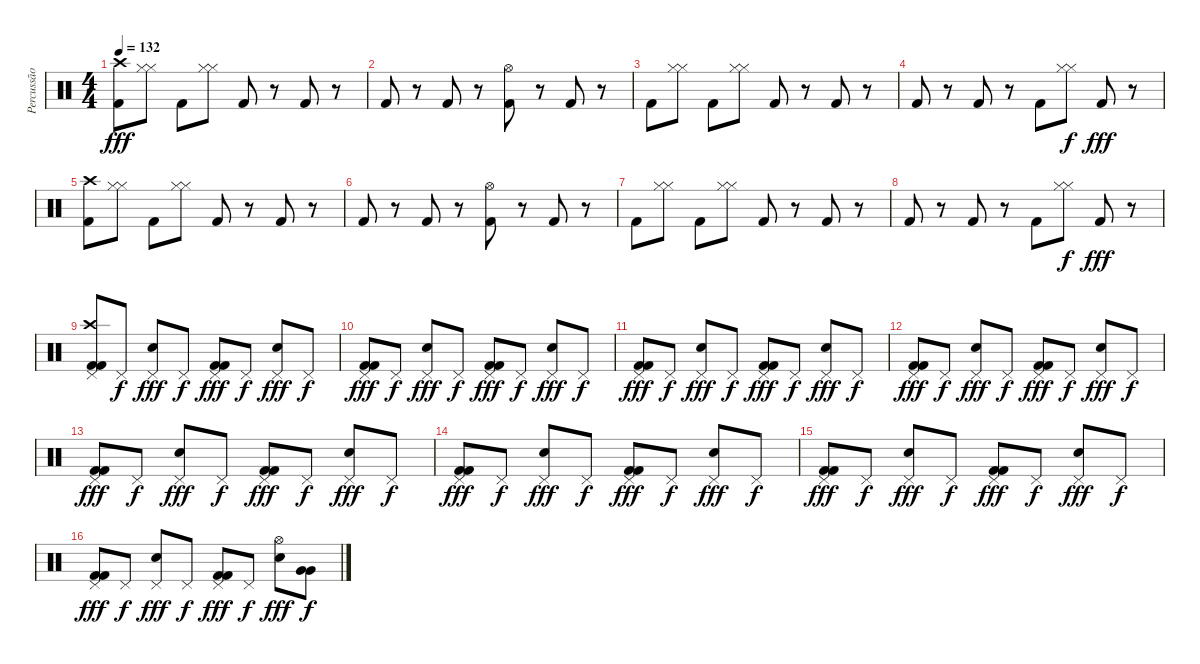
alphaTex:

\track ("Percussão" "Percussão") {instrument percussion}
\staff {score}
\articulation defaults
\ts (4 4)
\tempo 132
\clef neutral
\ks c
("Kick (hit) 2" "Crash high (hit)").8{dy fff} ("Hi-Hat (closed)" "Hi-Hat (closed)").8 "Kick (hit) 2".8 ("Hi-Hat (closed)" "Hi-Hat (closed)").8 "Kick (hit) 2".8 r.8 "Kick (hit) 2".8 r.8 |
"Kick (hit) 2".8 r.8 "Kick (hit) 2".8 r.8 ("Kick (hit) 2" "Hi-Hat (open)").8 r.8 "Kick (hit) 2".8 r.8 |
"Kick (hit) 2".8 ("Hi-Hat (closed)" "Hi-Hat (closed)").8 "Kick (hit) 2".8 ("Hi-Hat (closed)" "Hi-Hat (closed)").8 "Kick (hit) 2".8 r.8 "Kick (hit) 2".8 r.8 |
"Kick (hit) 2".8 r.8 "Kick (hit) 2".8 r.8 "Kick (hit) 2".8 ("Hi-Hat (closed)" "Hi-Hat (closed)").8{dy f} "Kick (hit) 2".8{dy fff} r.8 |
("Kick (hit) 2" "Crash high (hit)").8 ("Hi-Hat (closed)" "Hi-Hat (closed)").8 "Kick (hit) 2".8 ("Hi-Hat (closed)" "Hi-Hat (closed)").8 "Kick (hit) 2".8 r.8 "Kick (hit) 2".8 r.8 |
"Kick (hit) 2".8 r.8 "Kick (hit) 2".8 r.8 ("Kick (hit) 2" "Hi-Hat (open)").8 r.8 "Kick (hit) 2".8 r.8 |
"Kick (hit) 2".8 ("Hi-Hat (closed)" "Hi-Hat (closed)").8 "Kick (hit) 2".8 ("Hi-Hat (closed)" "Hi-Hat (closed)").8 "Kick (hit) 2".8 r.8 "Kick (hit) 2".8 r.8 |
"Kick (hit) 2".8 r.8 "Kick (hit) 2".8 r.8 "Kick (hit) 2".8 ("Hi-Hat (closed)" "Hi-Hat (closed)").8{dy f} "Kick (hit) 2".8{dy fff} r.8 |
("Kick (hit) 2" "Kick (hit) 2" "Crash high (hit)" "Pedal Hi-Hat (hit)").8 "Pedal Hi-Hat (hit)".8{dy f} ("Electric Snare (hit)" "Pedal Hi-Hat (hit)").8{dy fff} "Pedal Hi-Hat (hit)".8{dy f} ("Kick (hit) 2" "Kick (hit) 2" "Pedal Hi-Hat (hit)").8{dy fff} "Pedal Hi-Hat (hit)".8{dy f} ("Electric Snare (hit)" "Pedal Hi-Hat (hit)").8{dy fff} "Pedal Hi-Hat (hit)".8{dy f} |
("Kick (hit) 2" "Kick (hit) 2" "Pedal Hi-Hat (hit)").8{dy fff} "Pedal Hi-Hat (hit)".8{dy f} ("Electric Snare (hit)" "Pedal Hi-Hat (hit)").8{dy fff} "Pedal Hi-Hat (hit)".8{dy f} ("Kick (hit) 2" "Kick (hit) 2" "Pedal Hi-Hat (hit)").8{dy fff} "Pedal Hi-Hat (hit)".8{dy f} ("Electric Snare (hit)" "Pedal Hi-Hat (hit)").8{dy fff} "Pedal Hi-Hat (hit)".8{dy f} |
("Kick (hit) 2" "Kick (hit) 2" "Pedal Hi-Hat (hit)").8{dy fff} "Pedal Hi-Hat (hit)".8{dy f} ("Electric Snare (hit)" "Pedal Hi-Hat (hit)").8{dy fff} "Pedal Hi-Hat (hit)".8{dy f} ("Kick (hit) 2" "Kick (hit) 2" "Pedal Hi-Hat (hit)").8{dy fff} "Pedal Hi-Hat (hit)".8{dy f} ("Electric Snare (hit)" "Pedal Hi-Hat (hit)").8{dy fff} "Pedal Hi-Hat (hit)".8{dy f} |
("Kick (hit) 2" "Kick (hit) 2" "Pedal Hi-Hat (hit)").8{dy fff} "Pedal Hi-Hat (hit)".8{dy f} ("Electric Snare (hit)" "Pedal Hi-Hat (hit)").8{dy fff} "Pedal Hi-Hat (hit)".8{dy f} ("Kick (hit) 2" "Kick (hit) 2" "Pedal Hi-Hat (hit)").8{dy fff} "Pedal Hi-Hat (hit)".8{dy f} ("Electric Snare (hit)" "Pedal Hi-Hat (hit)").8{dy fff} "Pedal Hi-Hat (hit)".8{dy f} |
("Kick (hit) 2" "Kick (hit) 2" "Pedal Hi-Hat (hit)").8{dy fff} "Pedal Hi-Hat (hit)".8{dy f} ("Electric Snare (hit)" "Pedal Hi-Hat (hit)").8{dy fff} "Pedal Hi-Hat (hit)".8{dy f} ("Kick (hit) 2" "Kick (hit) 2" "Pedal Hi-Hat (hit)").8{dy fff} "Pedal Hi-Hat (hit)".8{dy f} ("Electric Snare (hit)" "Pedal Hi-Hat (hit)").8{dy fff} "Pedal Hi-Hat (hit)".8{dy f} |
("Kick (hit) 2" "Kick (hit) 2" "Pedal Hi-Hat (hit)").8{dy fff} "Pedal Hi-Hat (hit)".8{dy f} ("Electric Snare (hit)" "Pedal Hi-Hat (hit)").8{dy fff} "Pedal Hi-Hat (hit)".8{dy f} ("Kick (hit) 2" "Kick (hit) 2" "Pedal Hi-Hat (hit)").8{dy fff} "Pedal Hi-Hat (hit)".8{dy f} ("Electric Snare (hit)" "Pedal Hi-Hat (hit)").8{dy fff} "Pedal Hi-Hat (hit)".8{dy f} |
("Kick (hit) 2" "Kick (hit) 2" "Pedal Hi-Hat (hit)").8{dy fff} "Pedal Hi-Hat (hit)".8{dy f} ("Electric Snare (hit)" "Pedal Hi-Hat (hit)").8{dy fff} "Pedal Hi-Hat (hit)".8{dy f} ("Kick (hit) 2" "Kick (hit) 2" "Pedal Hi-Hat (hit)").8{dy fff} "Pedal Hi-Hat (hit)".8{dy f} ("Electric Snare (hit)" "Pedal Hi-Hat (hit)").8{dy fff} "Pedal Hi-Hat (hit)".8{dy f} |
("Kick (hit) 2" "Kick (hit) 2" "Pedal Hi-Hat (hit)").8{dy fff} "Pedal Hi-Hat (hit)".8{dy f} ("Electric Snare (hit)" "Pedal Hi-Hat (hit)").8{dy fff} "Pedal Hi-Hat (hit)".8{dy f} ("Kick (hit) 2" "Kick (hit) 2" "Pedal Hi-Hat (hit)").8{dy fff} "Pedal Hi-Hat (hit)".8{dy f} ("Electric Snare (hit)" "Hi-Hat (open)").8{dy fff} ("Very Low Tom (hit)" "Very Low Tom (hit)").8{dy f}
